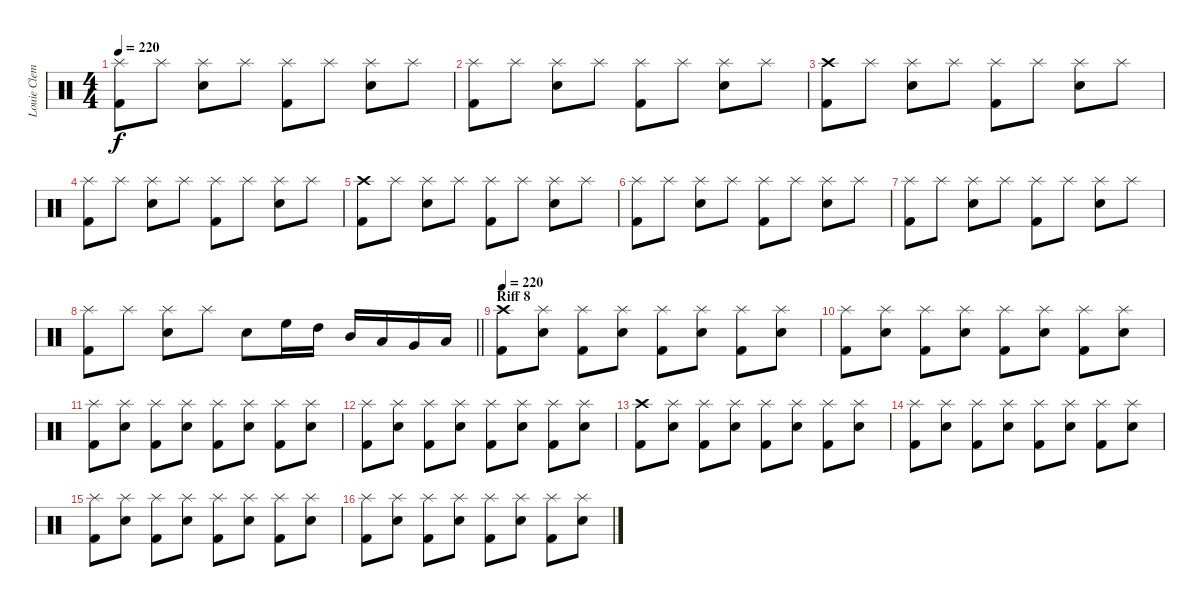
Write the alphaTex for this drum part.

\track ("Louie Clemente (Drums)" "Louie Clem") {instrument percussion}
\staff {score}
\articulation defaults
\ts (4 4)
\tempo 220
\clef neutral
\ks c
("Splash (hit)" "Kick (hit) 2").8{dy f} "Splash (hit)".8 ("Splash (hit)" "Electric Snare (hit)").8 "Splash (hit)".8 ("Splash (hit)" "Kick (hit) 2").8 "Splash (hit)".8 ("Splash (hit)" "Electric Snare (hit)").8 "Splash (hit)".8 |
("Splash (hit)" "Kick (hit) 2").8 "Splash (hit)".8 ("Splash (hit)" "Electric Snare (hit)").8 "Splash (hit)".8 ("Splash (hit)" "Kick (hit) 2").8 "Splash (hit)".8 ("Splash (hit)" "Electric Snare (hit)").8 "Splash (hit)".8 |
("Crash high (hit)" "Kick (hit) 2").8 "Splash (hit)".8 ("Splash (hit)" "Electric Snare (hit)").8 "Splash (hit)".8 ("Splash (hit)" "Kick (hit) 2").8 "Splash (hit)".8 ("Splash (hit)" "Electric Snare (hit)").8 "Splash (hit)".8 |
("Splash (hit)" "Kick (hit) 2").8 "Splash (hit)".8 ("Splash (hit)" "Electric Snare (hit)").8 "Splash (hit)".8 ("Splash (hit)" "Kick (hit) 2").8 "Splash (hit)".8 ("Splash (hit)" "Electric Snare (hit)").8 "Splash (hit)".8 |
("Crash high (hit)" "Kick (hit) 2").8 "Splash (hit)".8 ("Splash (hit)" "Electric Snare (hit)").8 "Splash (hit)".8 ("Splash (hit)" "Kick (hit) 2").8 "Splash (hit)".8 ("Splash (hit)" "Electric Snare (hit)").8 "Splash (hit)".8 |
("Splash (hit)" "Kick (hit) 2").8 "Splash (hit)".8 ("Splash (hit)" "Electric Snare (hit)").8 "Splash (hit)".8 ("Splash (hit)" "Kick (hit) 2").8 "Splash (hit)".8 ("Splash (hit)" "Electric Snare (hit)").8 "Splash (hit)".8 |
("Splash (hit)" "Kick (hit) 2").8 "Splash (hit)".8 ("Splash (hit)" "Electric Snare (hit)").8 "Splash (hit)".8 ("Splash (hit)" "Kick (hit) 2").8 "Splash (hit)".8 ("Splash (hit)" "Electric Snare (hit)").8 "Splash (hit)".8 |
\barLineRight lightlight
("Splash (hit)" "Kick (hit) 2").8 "Splash (hit)".8 ("Splash (hit)" "Electric Snare (hit)").8 "Splash (hit)".8 "Electric Snare (hit)".8 "High Floor Tom (hit)".16 "High Tom (hit)".16 "Mid Tom (hit)".16 "Low Tom (hit)".16 "Very Low Tom (hit)".16 "Low Floor Tom (hit)".16 |
\section ("" "Riff 8")
\tempo 220
("Crash high (hit)" "Kick (hit) 2").8 ("Splash (hit)" "Electric Snare (hit)").8 ("Splash (hit)" "Kick (hit) 2").8 ("Splash (hit)" "Electric Snare (hit)").8 ("Splash (hit)" "Kick (hit) 2").8 ("Splash (hit)" "Electric Snare (hit)").8 ("Splash (hit)" "Kick (hit) 2").8 ("Splash (hit)" "Electric Snare (hit)").8 |
("Splash (hit)" "Kick (hit) 2").8 ("Splash (hit)" "Electric Snare (hit)").8 ("Splash (hit)" "Kick (hit) 2").8 ("Splash (hit)" "Electric Snare (hit)").8 ("Splash (hit)" "Kick (hit) 2").8 ("Splash (hit)" "Electric Snare (hit)").8 ("Splash (hit)" "Kick (hit) 2").8 ("Splash (hit)" "Electric Snare (hit)").8 |
("Splash (hit)" "Kick (hit) 2").8 ("Splash (hit)" "Electric Snare (hit)").8 ("Splash (hit)" "Kick (hit) 2").8 ("Splash (hit)" "Electric Snare (hit)").8 ("Splash (hit)" "Kick (hit) 2").8 ("Splash (hit)" "Electric Snare (hit)").8 ("Splash (hit)" "Kick (hit) 2").8 ("Splash (hit)" "Electric Snare (hit)").8 |
("Splash (hit)" "Kick (hit) 2").8 ("Splash (hit)" "Electric Snare (hit)").8 ("Splash (hit)" "Kick (hit) 2").8 ("Splash (hit)" "Electric Snare (hit)").8 ("Splash (hit)" "Kick (hit) 2").8 ("Splash (hit)" "Electric Snare (hit)").8 ("Splash (hit)" "Kick (hit) 2").8 ("Splash (hit)" "Electric Snare (hit)").8 |
("Crash high (hit)" "Kick (hit) 2").8 ("Splash (hit)" "Electric Snare (hit)").8 ("Splash (hit)" "Kick (hit) 2").8 ("Splash (hit)" "Electric Snare (hit)").8 ("Splash (hit)" "Kick (hit) 2").8 ("Splash (hit)" "Electric Snare (hit)").8 ("Splash (hit)" "Kick (hit) 2").8 ("Splash (hit)" "Electric Snare (hit)").8 |
("Splash (hit)" "Kick (hit) 2").8 ("Splash (hit)" "Electric Snare (hit)").8 ("Splash (hit)" "Kick (hit) 2").8 ("Splash (hit)" "Electric Snare (hit)").8 ("Splash (hit)" "Kick (hit) 2").8 ("Splash (hit)" "Electric Snare (hit)").8 ("Splash (hit)" "Kick (hit) 2").8 ("Splash (hit)" "Electric Snare (hit)").8 |
("Splash (hit)" "Kick (hit) 2").8 ("Splash (hit)" "Electric Snare (hit)").8 ("Splash (hit)" "Kick (hit) 2").8 ("Splash (hit)" "Electric Snare (hit)").8 ("Splash (hit)" "Kick (hit) 2").8 ("Splash (hit)" "Electric Snare (hit)").8 ("Splash (hit)" "Kick (hit) 2").8 ("Splash (hit)" "Electric Snare (hit)").8 |
("Splash (hit)" "Kick (hit) 2").8 ("Splash (hit)" "Electric Snare (hit)").8 ("Splash (hit)" "Kick (hit) 2").8 ("Splash (hit)" "Electric Snare (hit)").8 ("Splash (hit)" "Kick (hit) 2").8 ("Splash (hit)" "Electric Snare (hit)").8 ("Splash (hit)" "Kick (hit) 2").8 ("Splash (hit)" "Electric Snare (hit)").8
